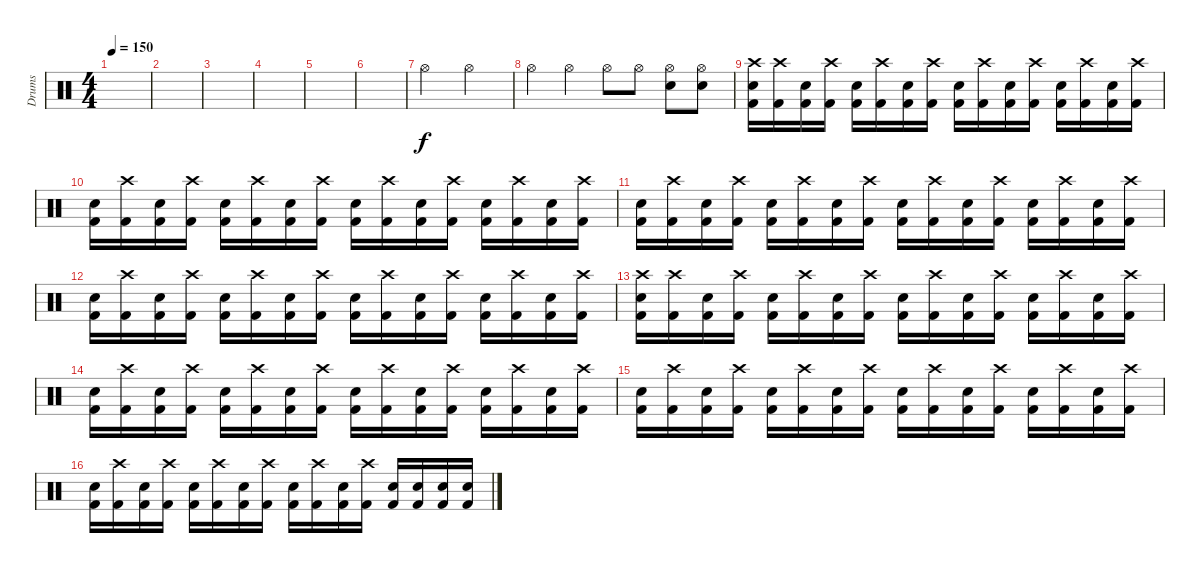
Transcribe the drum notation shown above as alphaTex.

\track ("Drums" "Drums") {instrument percussion}
\staff {score}
\articulation defaults
\ts (4 4)
\tempo 150
\clef neutral
\ks c
|
|
|
|
|
|
"Hi-Hat (open)".2 "Hi-Hat (open)".2 |
"Hi-Hat (open)".4 "Hi-Hat (open)".4 "Hi-Hat (open)".8 "Hi-Hat (open)".8 ("Hi-Hat (open)" "Snare (hit) 2").8 ("Hi-Hat (open)" "Snare (hit) 2").8 |
("Crash high (hit)" "Snare (hit) 2" "Kick (hit) 2").16 ("Crash high (hit)" "Kick (hit) 2").16 ("Snare (hit) 2" "Kick (hit) 2").16 ("Crash high (hit)" "Kick (hit) 2").16 ("Snare (hit) 2" "Kick (hit) 2").16 ("Crash high (hit)" "Kick (hit) 2").16 ("Snare (hit) 2" "Kick (hit) 2").16 ("Crash high (hit)" "Kick (hit) 2").16 ("Snare (hit) 2" "Kick (hit) 2").16 ("Crash high (hit)" "Kick (hit) 2").16 ("Snare (hit) 2" "Kick (hit) 2").16 ("Crash high (hit)" "Kick (hit) 2").16 ("Snare (hit) 2" "Kick (hit) 2").16 ("Crash high (hit)" "Kick (hit) 2").16 ("Snare (hit) 2" "Kick (hit) 2").16 ("Crash high (hit)" "Kick (hit) 2").16 |
("Snare (hit) 2" "Kick (hit) 2").16 ("Crash high (hit)" "Kick (hit) 2").16 ("Snare (hit) 2" "Kick (hit) 2").16 ("Crash high (hit)" "Kick (hit) 2").16 ("Snare (hit) 2" "Kick (hit) 2").16 ("Crash high (hit)" "Kick (hit) 2").16 ("Snare (hit) 2" "Kick (hit) 2").16 ("Crash high (hit)" "Kick (hit) 2").16 ("Snare (hit) 2" "Kick (hit) 2").16 ("Crash high (hit)" "Kick (hit) 2").16 ("Snare (hit) 2" "Kick (hit) 2").16 ("Crash high (hit)" "Kick (hit) 2").16 ("Snare (hit) 2" "Kick (hit) 2").16 ("Crash high (hit)" "Kick (hit) 2").16 ("Snare (hit) 2" "Kick (hit) 2").16 ("Crash high (hit)" "Kick (hit) 2").16 |
("Snare (hit) 2" "Kick (hit) 2").16 ("Crash high (hit)" "Kick (hit) 2").16 ("Snare (hit) 2" "Kick (hit) 2").16 ("Crash high (hit)" "Kick (hit) 2").16 ("Snare (hit) 2" "Kick (hit) 2").16 ("Crash high (hit)" "Kick (hit) 2").16 ("Snare (hit) 2" "Kick (hit) 2").16 ("Crash high (hit)" "Kick (hit) 2").16 ("Snare (hit) 2" "Kick (hit) 2").16 ("Crash high (hit)" "Kick (hit) 2").16 ("Snare (hit) 2" "Kick (hit) 2").16 ("Crash high (hit)" "Kick (hit) 2").16 ("Snare (hit) 2" "Kick (hit) 2").16 ("Crash high (hit)" "Kick (hit) 2").16 ("Snare (hit) 2" "Kick (hit) 2").16 ("Crash high (hit)" "Kick (hit) 2").16 |
("Snare (hit) 2" "Kick (hit) 2").16 ("Crash high (hit)" "Kick (hit) 2").16 ("Snare (hit) 2" "Kick (hit) 2").16 ("Crash high (hit)" "Kick (hit) 2").16 ("Snare (hit) 2" "Kick (hit) 2").16 ("Crash high (hit)" "Kick (hit) 2").16 ("Snare (hit) 2" "Kick (hit) 2").16 ("Crash high (hit)" "Kick (hit) 2").16 ("Snare (hit) 2" "Kick (hit) 2").16 ("Crash high (hit)" "Kick (hit) 2").16 ("Snare (hit) 2" "Kick (hit) 2").16 ("Crash high (hit)" "Kick (hit) 2").16 ("Snare (hit) 2" "Kick (hit) 2").16 ("Crash high (hit)" "Kick (hit) 2").16 ("Snare (hit) 2" "Kick (hit) 2").16 ("Crash high (hit)" "Kick (hit) 2").16 |
("Crash high (hit)" "Snare (hit) 2" "Kick (hit) 2").16 ("Crash high (hit)" "Kick (hit) 2").16 ("Snare (hit) 2" "Kick (hit) 2").16 ("Crash high (hit)" "Kick (hit) 2").16 ("Snare (hit) 2" "Kick (hit) 2").16 ("Crash high (hit)" "Kick (hit) 2").16 ("Snare (hit) 2" "Kick (hit) 2").16 ("Crash high (hit)" "Kick (hit) 2").16 ("Snare (hit) 2" "Kick (hit) 2").16 ("Crash high (hit)" "Kick (hit) 2").16 ("Snare (hit) 2" "Kick (hit) 2").16 ("Crash high (hit)" "Kick (hit) 2").16 ("Snare (hit) 2" "Kick (hit) 2").16 ("Crash high (hit)" "Kick (hit) 2").16 ("Snare (hit) 2" "Kick (hit) 2").16 ("Crash high (hit)" "Kick (hit) 2").16 |
("Snare (hit) 2" "Kick (hit) 2").16 ("Crash high (hit)" "Kick (hit) 2").16 ("Snare (hit) 2" "Kick (hit) 2").16 ("Crash high (hit)" "Kick (hit) 2").16 ("Snare (hit) 2" "Kick (hit) 2").16 ("Crash high (hit)" "Kick (hit) 2").16 ("Snare (hit) 2" "Kick (hit) 2").16 ("Crash high (hit)" "Kick (hit) 2").16 ("Snare (hit) 2" "Kick (hit) 2").16 ("Crash high (hit)" "Kick (hit) 2").16 ("Snare (hit) 2" "Kick (hit) 2").16 ("Crash high (hit)" "Kick (hit) 2").16 ("Snare (hit) 2" "Kick (hit) 2").16 ("Crash high (hit)" "Kick (hit) 2").16 ("Snare (hit) 2" "Kick (hit) 2").16 ("Crash high (hit)" "Kick (hit) 2").16 |
("Snare (hit) 2" "Kick (hit) 2").16 ("Crash high (hit)" "Kick (hit) 2").16 ("Snare (hit) 2" "Kick (hit) 2").16 ("Crash high (hit)" "Kick (hit) 2").16 ("Snare (hit) 2" "Kick (hit) 2").16 ("Crash high (hit)" "Kick (hit) 2").16 ("Snare (hit) 2" "Kick (hit) 2").16 ("Crash high (hit)" "Kick (hit) 2").16 ("Snare (hit) 2" "Kick (hit) 2").16 ("Crash high (hit)" "Kick (hit) 2").16 ("Snare (hit) 2" "Kick (hit) 2").16 ("Crash high (hit)" "Kick (hit) 2").16 ("Snare (hit) 2" "Kick (hit) 2").16 ("Crash high (hit)" "Kick (hit) 2").16 ("Snare (hit) 2" "Kick (hit) 2").16 ("Crash high (hit)" "Kick (hit) 2").16 |
("Snare (hit) 2" "Kick (hit) 2").16 ("Crash high (hit)" "Kick (hit) 2").16 ("Snare (hit) 2" "Kick (hit) 2").16 ("Crash high (hit)" "Kick (hit) 2").16 ("Snare (hit) 2" "Kick (hit) 2").16 ("Crash high (hit)" "Kick (hit) 2").16 ("Snare (hit) 2" "Kick (hit) 2").16 ("Crash high (hit)" "Kick (hit) 2").16 ("Snare (hit) 2" "Kick (hit) 2").16 ("Crash high (hit)" "Kick (hit) 2").16 ("Snare (hit) 2" "Kick (hit) 2").16 ("Crash high (hit)" "Kick (hit) 2").16 ("Snare (hit) 2" "Kick (hit) 2").16 ("Snare (hit) 2" "Kick (hit) 2").16 ("Snare (hit) 2" "Kick (hit) 2").16 ("Snare (hit) 2" "Kick (hit) 2").16
